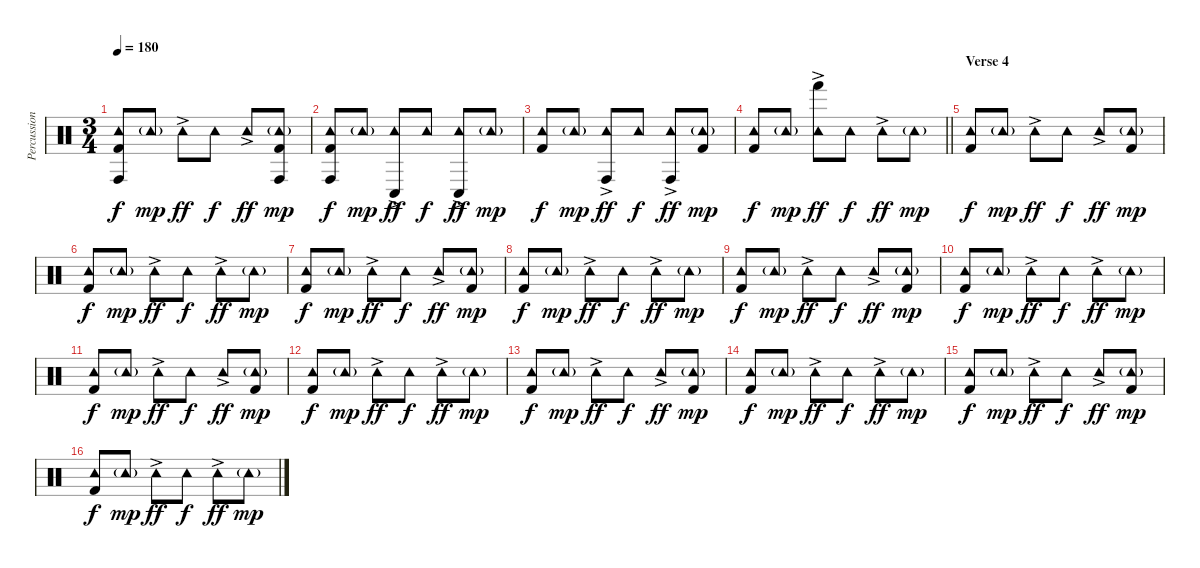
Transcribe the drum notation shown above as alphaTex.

\track ("Percussion" "Percussion") {instrument percussion}
\staff {score}
\articulation defaults
\ts (3 4)
\tempo 180
\clef neutral
\ks c
("Tambourine (hit)" "Conga high (hit)" "Kick (hit) 2").8{dy f volume 8} "Tambourine (hit)"{g}.8{dy mp} "Tambourine (hit)"{ac}.8{dy ff volume 10} "Tambourine (hit)".8{dy f volume 6} "Tambourine (hit)"{ac}.8{dy ff volume 10} ("Tambourine (hit)"{g} "Conga high (hit)" "Kick (hit) 2").8{dy mp} |
("Tambourine (hit)" "Conga high (hit)" "Kick (hit) 2").8{dy f} "Tambourine (hit)"{g}.8{dy mp} ("Tambourine (hit)"{ac} "Conga low (hit)").8{dy ff volume 10} "Tambourine (hit)".8{dy f volume 6} ("Tambourine (hit)"{ac} "Conga low (hit)").8{dy ff volume 10} "Tambourine (hit)"{g}.8{dy mp} |
("Tambourine (hit)" "Kick (hit) 2").8{dy f} "Tambourine (hit)"{g}.8{dy mp} ("Tambourine (hit)"{ac} "Conga high (hit)").8{dy ff volume 10} "Tambourine (hit)".8{dy f volume 6} ("Tambourine (hit)"{ac} "Conga high (hit)").8{dy ff volume 10} ("Tambourine (hit)"{g} "Kick (hit) 2").8{dy mp} |
\barLineRight lightlight
("Tambourine (hit)" "Kick (hit) 2").8{dy f} "Tambourine (hit)"{g}.8{dy mp} ("Tambourine (hit)"{ac} "Hand (hit)").8{dy ff volume 10} "Tambourine (hit)".8{dy f volume 6} "Tambourine (hit)"{ac}.8{dy ff volume 10} "Tambourine (hit)"{g}.8{dy mp} |
\section ("" "Verse 4")
("Tambourine (hit)" "Kick (hit) 2").8{dy f} "Tambourine (hit)"{g}.8{dy mp} "Tambourine (hit)"{ac}.8{dy ff volume 10} "Tambourine (hit)".8{dy f volume 6} "Tambourine (hit)"{ac}.8{dy ff volume 10} ("Tambourine (hit)"{g} "Kick (hit) 2").8{dy mp} |
("Tambourine (hit)" "Kick (hit) 2").8{dy f} "Tambourine (hit)"{g}.8{dy mp} "Tambourine (hit)"{ac}.8{dy ff volume 10} "Tambourine (hit)".8{dy f volume 6} "Tambourine (hit)"{ac}.8{dy ff volume 10} "Tambourine (hit)"{g}.8{dy mp} |
("Tambourine (hit)" "Kick (hit) 2").8{dy f} "Tambourine (hit)"{g}.8{dy mp} "Tambourine (hit)"{ac}.8{dy ff volume 10} "Tambourine (hit)".8{dy f volume 6} "Tambourine (hit)"{ac}.8{dy ff volume 10} ("Tambourine (hit)"{g} "Kick (hit) 2").8{dy mp} |
("Tambourine (hit)" "Kick (hit) 2").8{dy f} "Tambourine (hit)"{g}.8{dy mp} "Tambourine (hit)"{ac}.8{dy ff volume 10} "Tambourine (hit)".8{dy f volume 6} "Tambourine (hit)"{ac}.8{dy ff volume 10} "Tambourine (hit)"{g}.8{dy mp} |
("Tambourine (hit)" "Kick (hit) 2").8{dy f} "Tambourine (hit)"{g}.8{dy mp} "Tambourine (hit)"{ac}.8{dy ff volume 10} "Tambourine (hit)".8{dy f volume 6} "Tambourine (hit)"{ac}.8{dy ff volume 10} ("Tambourine (hit)"{g} "Kick (hit) 2").8{dy mp} |
("Tambourine (hit)" "Kick (hit) 2").8{dy f} "Tambourine (hit)"{g}.8{dy mp} "Tambourine (hit)"{ac}.8{dy ff volume 10} "Tambourine (hit)".8{dy f volume 6} "Tambourine (hit)"{ac}.8{dy ff volume 10} "Tambourine (hit)"{g}.8{dy mp} |
("Tambourine (hit)" "Kick (hit) 2").8{dy f} "Tambourine (hit)"{g}.8{dy mp} "Tambourine (hit)"{ac}.8{dy ff volume 10} "Tambourine (hit)".8{dy f volume 6} "Tambourine (hit)"{ac}.8{dy ff volume 10} ("Tambourine (hit)"{g} "Kick (hit) 2").8{dy mp} |
("Tambourine (hit)" "Kick (hit) 2").8{dy f} "Tambourine (hit)"{g}.8{dy mp} "Tambourine (hit)"{ac}.8{dy ff volume 10} "Tambourine (hit)".8{dy f volume 6} "Tambourine (hit)"{ac}.8{dy ff volume 10} "Tambourine (hit)"{g}.8{dy mp} |
("Tambourine (hit)" "Kick (hit) 2").8{dy f} "Tambourine (hit)"{g}.8{dy mp} "Tambourine (hit)"{ac}.8{dy ff volume 10} "Tambourine (hit)".8{dy f volume 6} "Tambourine (hit)"{ac}.8{dy ff volume 10} ("Tambourine (hit)"{g} "Kick (hit) 2").8{dy mp} |
("Tambourine (hit)" "Kick (hit) 2").8{dy f} "Tambourine (hit)"{g}.8{dy mp} "Tambourine (hit)"{ac}.8{dy ff volume 10} "Tambourine (hit)".8{dy f volume 6} "Tambourine (hit)"{ac}.8{dy ff volume 10} "Tambourine (hit)"{g}.8{dy mp} |
("Tambourine (hit)" "Kick (hit) 2").8{dy f} "Tambourine (hit)"{g}.8{dy mp} "Tambourine (hit)"{ac}.8{dy ff volume 10} "Tambourine (hit)".8{dy f volume 6} "Tambourine (hit)"{ac}.8{dy ff volume 10} ("Tambourine (hit)"{g} "Kick (hit) 2").8{dy mp} |
("Tambourine (hit)" "Kick (hit) 2").8{dy f} "Tambourine (hit)"{g}.8{dy mp} "Tambourine (hit)"{ac}.8{dy ff volume 10} "Tambourine (hit)".8{dy f volume 6} "Tambourine (hit)"{ac}.8{dy ff volume 10} "Tambourine (hit)"{g}.8{dy mp}
